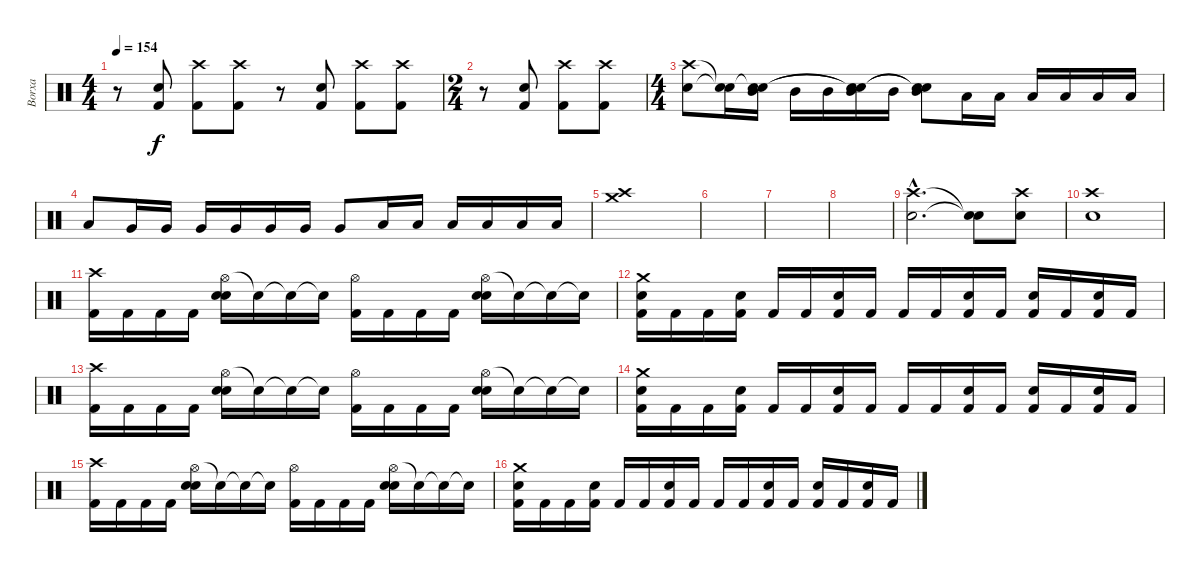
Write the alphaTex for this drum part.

\track ("Borxa" "Borxa") {instrument percussion}
\staff {score}
\articulation defaults
\ts (4 4)
\tempo 154
\clef neutral
\ks c
r.8{dy f} ("Snare (hit) 2" "Kick (hit) 2").8 ("Crash high (hit)" "Kick (hit) 2").8 ("Crash high (hit)" "Kick (hit) 2").8 r.8 ("Snare (hit) 2" "Kick (hit) 2").8 ("Crash high (hit)" "Kick (hit) 2").8 ("Crash high (hit)" "Kick (hit) 2").8 |
\ts (2 4)
r.8 ("Snare (hit) 2" "Kick (hit) 2").8 ("Crash high (hit)" "Kick (hit) 2").8 ("Crash high (hit)" "Kick (hit) 2").8 |
\ts (4 4)
("Crash high (hit)" "Snare (hit) 2").8 ("Snare (hit)"{t} "Snare (hit)"{t}).16 ("Mid Tom (hit)" "Snare (hit)"{t} "Snare (hit)"{t}).16 "Mid Tom (hit)".16 "Mid Tom (hit)".16 ("Mid Tom (hit)" "Snare (hit)"{t} "Snare (hit)"{t}).16 "Mid Tom (hit)".16 ("Mid Tom (hit)" "Snare (hit)"{t} "Snare (hit)"{t}).8 "Low Tom (hit)".16 "Low Tom (hit)".16 "Low Tom (hit)".16 "Low Tom (hit)".16 "Low Tom (hit)".16 "Low Tom (hit)".16 |
"Low Tom (hit)".8 "Very Low Tom (hit)".16 "Very Low Tom (hit)".16 "Very Low Tom (hit)".16 "Very Low Tom (hit)".16 "Very Low Tom (hit)".16 "Very Low Tom (hit)".16 "Very Low Tom (hit)".8 "Low Floor Tom (hit)".16 "Low Floor Tom (hit)".16 "Low Floor Tom (hit)".16 "Low Floor Tom (hit)".16 "Low Floor Tom (hit)".16 "Low Floor Tom (hit)".16 |
("Crash high (hit)" "Crash medium (hit)").1 |
|
|
|
("Crash high (hit)"{hac} "Snare (hit) 2"{hac}).2{d} ("Snare (hit)"{t} "Snare (hit)"{t}).8 ("Crash high (hit)" "Snare (hit) 2").8 |
("Crash high (hit)" "Snare (hit) 2").1 |
("Crash high (hit)" "Kick (hit) 2").16 "Kick (hit) 2".16 "Kick (hit) 2".16 "Kick (hit) 2".16 ("Hi-Hat (open)" "Snare (hit) 2" "Snare (hit) 2").16 "Snare (hit)"{t}.16 "Snare (hit)"{t}.16 "Snare (hit)"{t}.16 ("Hi-Hat (open)" "Kick (hit) 2").16 "Kick (hit) 2".16 "Kick (hit) 2".16 "Kick (hit) 2".16 ("Hi-Hat (open)" "Snare (hit) 2" "Snare (hit) 2").16 "Snare (hit)"{t}.16 "Snare (hit)"{t}.16 "Snare (hit)"{t}.16 |
("Crash medium (hit)" "Snare (hit) 2" "Kick (hit) 2").16 "Kick (hit) 2".16 "Kick (hit) 2".16 ("Snare (hit) 2" "Kick (hit) 2").16 "Kick (hit) 2".16 "Kick (hit) 2".16 ("Snare (hit) 2" "Kick (hit) 2").16 "Kick (hit) 2".16 "Kick (hit) 2".16 "Kick (hit) 2".16 ("Snare (hit) 2" "Kick (hit) 2").16 "Kick (hit) 2".16 ("Snare (hit) 2" "Kick (hit) 2").16 "Kick (hit) 2".16 ("Snare (hit) 2" "Kick (hit) 2").16 "Kick (hit) 2".16 |
("Crash high (hit)" "Kick (hit) 2").16 "Kick (hit) 2".16 "Kick (hit) 2".16 "Kick (hit) 2".16 ("Hi-Hat (open)" "Snare (hit) 2" "Snare (hit) 2").16 "Snare (hit)"{t}.16 "Snare (hit)"{t}.16 "Snare (hit)"{t}.16 ("Hi-Hat (open)" "Kick (hit) 2").16 "Kick (hit) 2".16 "Kick (hit) 2".16 "Kick (hit) 2".16 ("Hi-Hat (open)" "Snare (hit) 2" "Snare (hit) 2").16 "Snare (hit)"{t}.16 "Snare (hit)"{t}.16 "Snare (hit)"{t}.16 |
("Crash medium (hit)" "Snare (hit) 2" "Kick (hit) 2").16 "Kick (hit) 2".16 "Kick (hit) 2".16 ("Snare (hit) 2" "Kick (hit) 2").16 "Kick (hit) 2".16 "Kick (hit) 2".16 ("Snare (hit) 2" "Kick (hit) 2").16 "Kick (hit) 2".16 "Kick (hit) 2".16 "Kick (hit) 2".16 ("Snare (hit) 2" "Kick (hit) 2").16 "Kick (hit) 2".16 ("Snare (hit) 2" "Kick (hit) 2").16 "Kick (hit) 2".16 ("Snare (hit) 2" "Kick (hit) 2").16 "Kick (hit) 2".16 |
("Crash high (hit)" "Kick (hit) 2").16 "Kick (hit) 2".16 "Kick (hit) 2".16 "Kick (hit) 2".16 ("Hi-Hat (open)" "Snare (hit) 2" "Snare (hit) 2").16 "Snare (hit)"{t}.16 "Snare (hit)"{t}.16 "Snare (hit)"{t}.16 ("Hi-Hat (open)" "Kick (hit) 2").16 "Kick (hit) 2".16 "Kick (hit) 2".16 "Kick (hit) 2".16 ("Hi-Hat (open)" "Snare (hit) 2" "Snare (hit) 2").16 "Snare (hit)"{t}.16 "Snare (hit)"{t}.16 "Snare (hit)"{t}.16 |
("Crash medium (hit)" "Snare (hit) 2" "Kick (hit) 2").16 "Kick (hit) 2".16 "Kick (hit) 2".16 ("Snare (hit) 2" "Kick (hit) 2").16 "Kick (hit) 2".16 "Kick (hit) 2".16 ("Snare (hit) 2" "Kick (hit) 2").16 "Kick (hit) 2".16 "Kick (hit) 2".16 "Kick (hit) 2".16 ("Snare (hit) 2" "Kick (hit) 2").16 "Kick (hit) 2".16 ("Snare (hit) 2" "Kick (hit) 2").16 "Kick (hit) 2".16 ("Snare (hit) 2" "Kick (hit) 2").16 "Kick (hit) 2".16
